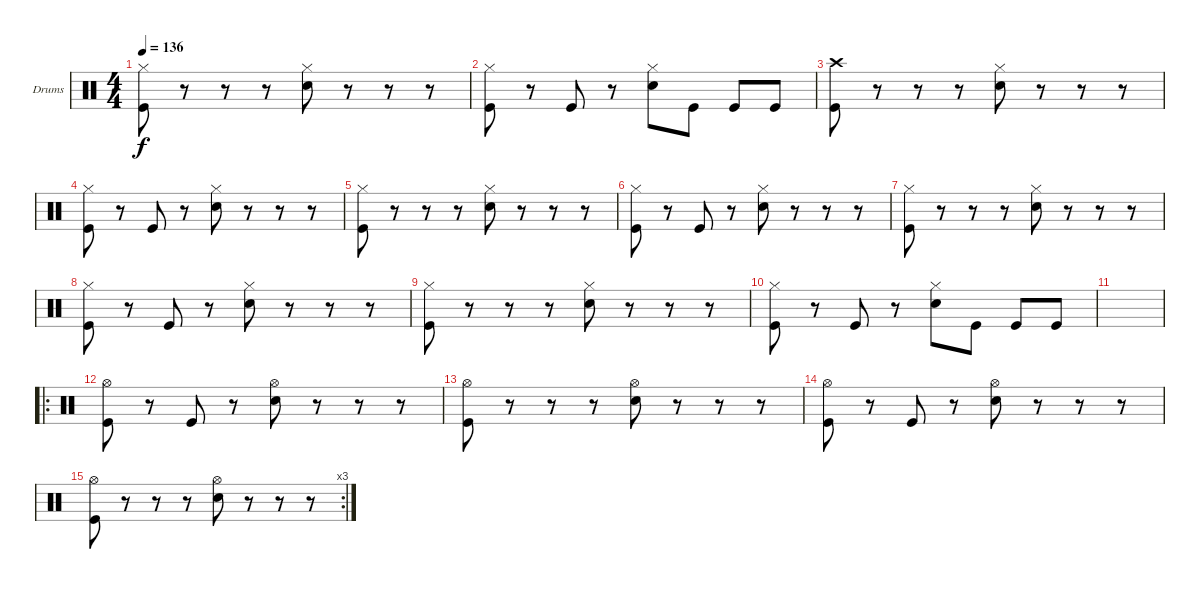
\defaultSystemsLayout 4
\bracketExtendMode groupsimilarinstruments
\firstSystemTrackNameOrientation horizontal
\otherSystemsTrackNameOrientation horizontal
\track ("Барабаны" "Drums") {instrument percussion}
\staff {score}
\articulation defaults
\ts (4 4)
\tempo 136
\clef neutral
\ks c
("Hi-Hat (closed)" "Kick (hit)").8{dy f} r.8 r.8 r.8 ("Hi-Hat (closed)" "Snare (hit) 2").8 r.8 r.8 r.8 |
("Hi-Hat (closed)" "Kick (hit)").8 r.8 "Kick (hit)".8 r.8 ("Hi-Hat (closed)" "Snare (hit) 2").8 "Kick (hit)".8 "Kick (hit)".8 "Kick (hit)".8 |
("Crash high (hit)" "Kick (hit)").8 r.8 r.8 r.8 ("Hi-Hat (closed)" "Snare (hit) 2").8 r.8 r.8 r.8 |
("Hi-Hat (closed)" "Kick (hit)").8 r.8 "Kick (hit)".8 r.8 ("Hi-Hat (closed)" "Snare (hit) 2").8 r.8 r.8 r.8 |
("Hi-Hat (closed)" "Kick (hit)").8 r.8 r.8 r.8 ("Hi-Hat (closed)" "Snare (hit) 2").8 r.8 r.8 r.8 |
("Hi-Hat (closed)" "Kick (hit)").8 r.8 "Kick (hit)".8 r.8 ("Hi-Hat (closed)" "Snare (hit) 2").8 r.8 r.8 r.8 |
("Hi-Hat (closed)" "Kick (hit)").8 r.8 r.8 r.8 ("Hi-Hat (closed)" "Snare (hit) 2").8 r.8 r.8 r.8 |
("Hi-Hat (closed)" "Kick (hit)").8 r.8 "Kick (hit)".8 r.8 ("Hi-Hat (closed)" "Snare (hit) 2").8 r.8 r.8 r.8 |
("Hi-Hat (closed)" "Kick (hit)").8 r.8 r.8 r.8 ("Hi-Hat (closed)" "Snare (hit) 2").8 r.8 r.8 r.8 |
("Hi-Hat (closed)" "Kick (hit)").8 r.8 "Kick (hit)".8 r.8 ("Hi-Hat (closed)" "Snare (hit) 2").8 "Kick (hit)".8 "Kick (hit)".8 "Kick (hit)".8 |
|
\ro
("Hi-Hat (open)" "Kick (hit)").8 r.8 "Kick (hit)".8 r.8 ("Hi-Hat (open)" "Snare (hit) 2").8 r.8 r.8 r.8 |
("Hi-Hat (open)" "Kick (hit)").8 r.8 r.8 r.8 ("Hi-Hat (open)" "Snare (hit) 2").8 r.8 r.8 r.8 |
("Hi-Hat (open)" "Kick (hit)").8 r.8 "Kick (hit)".8 r.8 ("Hi-Hat (open)" "Snare (hit) 2").8 r.8 r.8 r.8 |
\rc 3
("Hi-Hat (open)" "Kick (hit)").8 r.8 r.8 r.8 ("Hi-Hat (open)" "Snare (hit) 2").8 r.8 r.8 r.8
